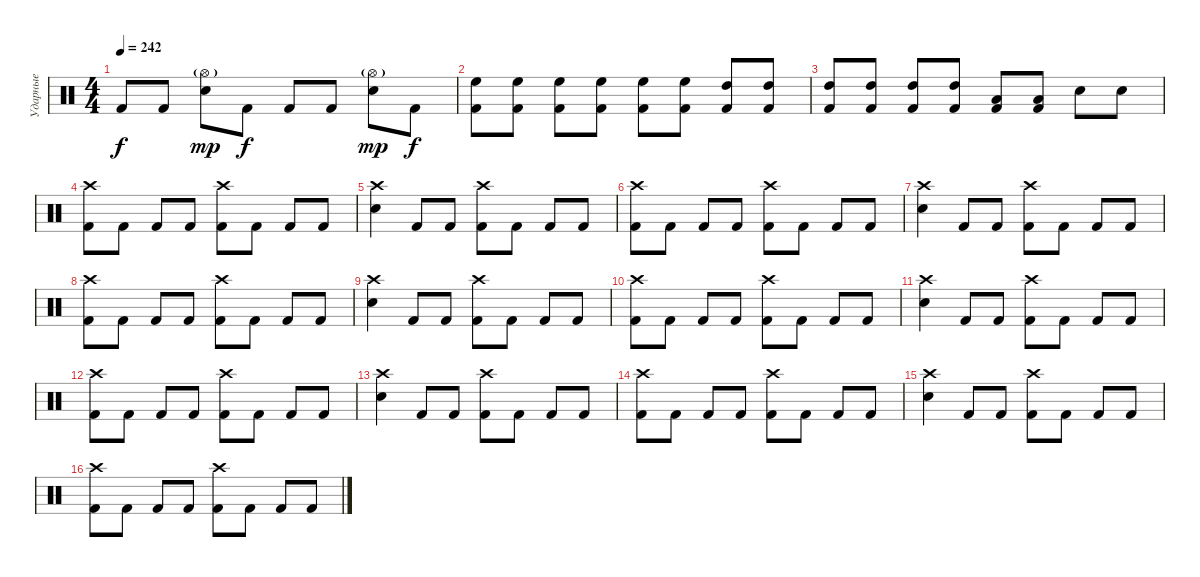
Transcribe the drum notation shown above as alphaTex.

\track ("Ударные" "Ударные") {instrument percussion}
\staff {score}
\articulation defaults
\ts (4 4)
\tempo 242
\clef neutral
\ks c "Kick (hit) 2".8{dy f} "Kick (hit) 2".8
("Hi-Hat (open)"{g} "Electric Snare (hit)").8{dy mp} "Kick (hit) 2".8{dy f} "Kick (hit) 2".8 "Kick (hit) 2".8 ("Hi-Hat (open)"{g} "Electric Snare (hit)").8{dy mp} "Kick (hit) 2".8{dy f} |
("High Floor Tom (hit)" "Kick (hit) 2").8 ("High Floor Tom (hit)" "Kick (hit) 2").8 ("High Floor Tom (hit)" "Kick (hit) 2").8 ("High Floor Tom (hit)" "Kick (hit) 2").8 ("High Floor Tom (hit)" "Kick (hit) 2").8 ("High Floor Tom (hit)" "Kick (hit) 2").8 ("High Tom (hit)" "Kick (hit) 2").8 ("High Tom (hit)" "Kick (hit) 2").8 |
("High Tom (hit)" "Kick (hit) 2").8 ("High Tom (hit)" "Kick (hit) 2").8 ("High Tom (hit)" "Kick (hit) 2").8 ("High Tom (hit)" "Kick (hit) 2").8 ("Low Tom (hit)" "Kick (hit) 2").8 ("Low Tom (hit)" "Kick (hit) 2").8 "Electric Snare (hit)".8 "Electric Snare (hit)".8 |
("Crash high (hit)" "Kick (hit) 2").8 "Kick (hit) 2".8 "Kick (hit) 2".8 "Kick (hit) 2".8 ("Crash high (hit)" "Kick (hit) 2").8 "Kick (hit) 2".8 "Kick (hit) 2".8 "Kick (hit) 2".8 |
("Crash high (hit)" "Electric Snare (hit)").4 "Kick (hit) 2".8 "Kick (hit) 2".8 ("Crash high (hit)" "Kick (hit) 2").8 "Kick (hit) 2".8 "Kick (hit) 2".8 "Kick (hit) 2".8 |
("Crash high (hit)" "Kick (hit) 2").8 "Kick (hit) 2".8 "Kick (hit) 2".8 "Kick (hit) 2".8 ("Crash high (hit)" "Kick (hit) 2").8 "Kick (hit) 2".8 "Kick (hit) 2".8 "Kick (hit) 2".8 |
("Crash high (hit)" "Electric Snare (hit)").4 "Kick (hit) 2".8 "Kick (hit) 2".8 ("Crash high (hit)" "Kick (hit) 2").8 "Kick (hit) 2".8 "Kick (hit) 2".8 "Kick (hit) 2".8 |
("Crash high (hit)" "Kick (hit) 2").8 "Kick (hit) 2".8 "Kick (hit) 2".8 "Kick (hit) 2".8 ("Crash high (hit)" "Kick (hit) 2").8 "Kick (hit) 2".8 "Kick (hit) 2".8 "Kick (hit) 2".8 |
("Crash high (hit)" "Electric Snare (hit)").4 "Kick (hit) 2".8 "Kick (hit) 2".8 ("Crash high (hit)" "Kick (hit) 2").8 "Kick (hit) 2".8 "Kick (hit) 2".8 "Kick (hit) 2".8 |
("Crash high (hit)" "Kick (hit) 2").8 "Kick (hit) 2".8 "Kick (hit) 2".8 "Kick (hit) 2".8 ("Crash high (hit)" "Kick (hit) 2").8 "Kick (hit) 2".8 "Kick (hit) 2".8 "Kick (hit) 2".8 |
("Crash high (hit)" "Electric Snare (hit)").4 "Kick (hit) 2".8 "Kick (hit) 2".8 ("Crash high (hit)" "Kick (hit) 2").8 "Kick (hit) 2".8 "Kick (hit) 2".8 "Kick (hit) 2".8 |
("Crash high (hit)" "Kick (hit) 2").8 "Kick (hit) 2".8 "Kick (hit) 2".8 "Kick (hit) 2".8 ("Crash high (hit)" "Kick (hit) 2").8 "Kick (hit) 2".8 "Kick (hit) 2".8 "Kick (hit) 2".8 |
("Crash high (hit)" "Electric Snare (hit)").4 "Kick (hit) 2".8 "Kick (hit) 2".8 ("Crash high (hit)" "Kick (hit) 2").8 "Kick (hit) 2".8 "Kick (hit) 2".8 "Kick (hit) 2".8 |
("Crash high (hit)" "Kick (hit) 2").8 "Kick (hit) 2".8 "Kick (hit) 2".8 "Kick (hit) 2".8 ("Crash high (hit)" "Kick (hit) 2").8 "Kick (hit) 2".8 "Kick (hit) 2".8 "Kick (hit) 2".8 |
("Crash high (hit)" "Electric Snare (hit)").4 "Kick (hit) 2".8 "Kick (hit) 2".8 ("Crash high (hit)" "Kick (hit) 2").8 "Kick (hit) 2".8 "Kick (hit) 2".8 "Kick (hit) 2".8 |
("Crash high (hit)" "Kick (hit) 2").8 "Kick (hit) 2".8 "Kick (hit) 2".8 "Kick (hit) 2".8 ("Crash high (hit)" "Kick (hit) 2").8 "Kick (hit) 2".8 "Kick (hit) 2".8 "Kick (hit) 2".8
